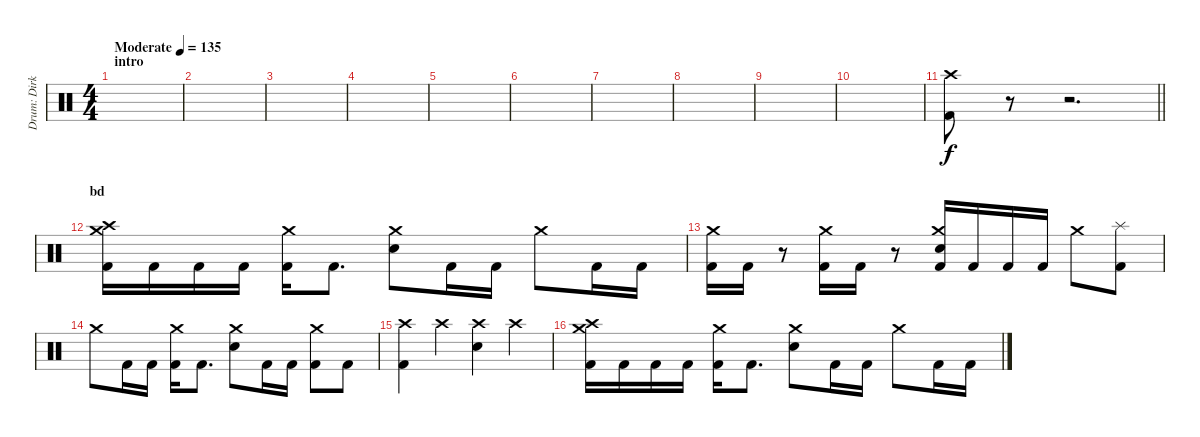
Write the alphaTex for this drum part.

\track ("Drum: Dirk" "Drum: Dirk") {instrument percussion}
\staff {score}
\articulation defaults
\ts (4 4)
\section ("" "intro")
\tempo (135 "Moderate")
\clef neutral
\ks c
|
|
|
|
|
|
|
|
|
|
\barLineRight lightlight
("Crash high (hit)" "Kick (hit) 2").8 r.8{volume 0} r.2{d} |
\section ("" "bd")
("Crash high (hit)" "Crash medium (hit)" "Kick (hit) 2").16{volume 15} "Kick (hit) 2".16 "Kick (hit) 2".16 "Kick (hit) 2".16 ("Crash medium (hit)" "Kick (hit) 2").16 "Kick (hit) 2".8{d} ("Crash medium (hit)" "Electric Snare (hit)").8 "Kick (hit) 2".16 "Kick (hit) 2".16 "Crash medium (hit)".8 "Kick (hit) 2".16 "Kick (hit) 2".16 |
("Crash medium (hit)" "Kick (hit) 2").16 "Kick (hit) 2".16 r.8 ("Crash medium (hit)" "Kick (hit) 2").16 "Kick (hit) 2".16 r.8 ("Crash medium (hit)" "Electric Snare (hit)" "Kick (hit) 2").16 "Kick (hit) 2".16 "Kick (hit) 2".16 "Kick (hit) 2".16 "Crash medium (hit)".8 ("Splash (hit)" "Kick (hit) 2").8 |
"Crash medium (hit)".8 "Kick (hit) 2".16 "Kick (hit) 2".16 ("Crash medium (hit)" "Kick (hit) 2").16 "Kick (hit) 2".8{d} ("Crash medium (hit)" "Electric Snare (hit)").8 "Kick (hit) 2".16 "Kick (hit) 2".16 ("Crash medium (hit)" "Kick (hit) 2").8 "Kick (hit) 2".8 |
("Crash high (hit)" "Kick (hit) 2").4 "Crash high (hit)".4 ("Crash high (hit)" "Electric Snare (hit)").4 "Crash high (hit)".4 |
("Crash high (hit)" "Crash medium (hit)" "Kick (hit) 2").16 "Kick (hit) 2".16 "Kick (hit) 2".16 "Kick (hit) 2".16 ("Crash medium (hit)" "Kick (hit) 2").16 "Kick (hit) 2".8{d} ("Crash medium (hit)" "Electric Snare (hit)").8 "Kick (hit) 2".16 "Kick (hit) 2".16 "Crash medium (hit)".8 "Kick (hit) 2".16 "Kick (hit) 2".16
